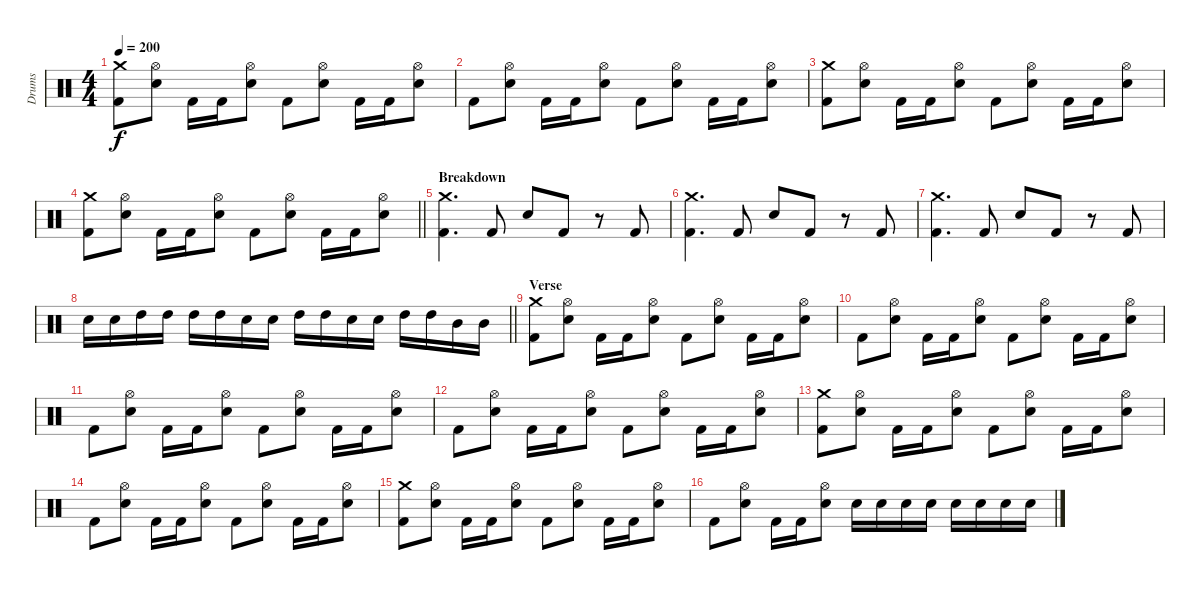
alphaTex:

\track ("Drums" "Drums") {instrument percussion}
\staff {score}
\articulation defaults
\ts (4 4)
\tempo 200
\clef neutral
\ks c
("Crash medium (hit)" "Kick (hit) 2").8{dy f} ("Hi-Hat (open)" "Electric Snare (hit)").8 "Kick (hit) 2".16 "Kick (hit) 2".16 ("Hi-Hat (open)" "Electric Snare (hit)").8 "Kick (hit) 2".8 ("Hi-Hat (open)" "Electric Snare (hit)").8 "Kick (hit) 2".16 "Kick (hit) 2".16 ("Hi-Hat (open)" "Electric Snare (hit)").8 |
"Kick (hit) 2".8 ("Hi-Hat (open)" "Electric Snare (hit)").8 "Kick (hit) 2".16 "Kick (hit) 2".16 ("Hi-Hat (open)" "Electric Snare (hit)").8 "Kick (hit) 2".8 ("Hi-Hat (open)" "Electric Snare (hit)").8 "Kick (hit) 2".16 "Kick (hit) 2".16 ("Hi-Hat (open)" "Electric Snare (hit)").8 |
("Crash medium (hit)" "Kick (hit) 2").8 ("Hi-Hat (open)" "Electric Snare (hit)").8 "Kick (hit) 2".16 "Kick (hit) 2".16 ("Hi-Hat (open)" "Electric Snare (hit)").8 "Kick (hit) 2".8 ("Hi-Hat (open)" "Electric Snare (hit)").8 "Kick (hit) 2".16 "Kick (hit) 2".16 ("Hi-Hat (open)" "Electric Snare (hit)").8 |
\barLineRight lightlight
("Crash medium (hit)" "Kick (hit) 2").8 ("Hi-Hat (open)" "Electric Snare (hit)").8 "Kick (hit) 2".16 "Kick (hit) 2".16 ("Hi-Hat (open)" "Electric Snare (hit)").8 "Kick (hit) 2".8 ("Hi-Hat (open)" "Electric Snare (hit)").8 "Kick (hit) 2".16 "Kick (hit) 2".16 ("Hi-Hat (open)" "Electric Snare (hit)").8 |
\section ("" "Breakdown")
("Crash medium (hit)" "Kick (hit) 2").4{d} "Kick (hit) 2".8 "Electric Snare (hit)".8 "Kick (hit) 2".8 r.8 "Kick (hit) 2".8 |
("Crash medium (hit)" "Kick (hit) 2").4{d} "Kick (hit) 2".8 "Electric Snare (hit)".8 "Kick (hit) 2".8 r.8 "Kick (hit) 2".8 |
("Crash medium (hit)" "Kick (hit) 2").4{d} "Kick (hit) 2".8 "Electric Snare (hit)".8 "Kick (hit) 2".8 r.8 "Kick (hit) 2".8 |
\barLineRight lightlight "Electric Snare (hit)".16 "Electric Snare (hit)".16 "High Tom (hit)".16{balance 0} "High Tom (hit)".16 "High Tom (hit)".16 "High Tom (hit)".16 "Electric Snare (hit)".16{balance 8} "Electric Snare (hit)".16 "High Tom (hit)".16{balance 0} "High Tom (hit)".16 "Electric Snare (hit)".16{balance 8} "Electric Snare (hit)".16 "High Tom (hit)".16{balance 0} "High Tom (hit)".16 "Mid Tom (hit)".16{balance 16} "Mid Tom (hit)".16
|
\section ("" "Verse")
("Crash medium (hit)" "Kick (hit) 2").8{balance 8} ("Hi-Hat (open)" "Electric Snare (hit)").8 "Kick (hit) 2".16 "Kick (hit) 2".16 ("Hi-Hat (open)" "Electric Snare (hit)").8 "Kick (hit) 2".8 ("Hi-Hat (open)" "Electric Snare (hit)").8 "Kick (hit) 2".16 "Kick (hit) 2".16 ("Hi-Hat (open)" "Electric Snare (hit)").8 |
"Kick (hit) 2".8 ("Hi-Hat (open)" "Electric Snare (hit)").8 "Kick (hit) 2".16 "Kick (hit) 2".16 ("Hi-Hat (open)" "Electric Snare (hit)").8 "Kick (hit) 2".8 ("Hi-Hat (open)" "Electric Snare (hit)").8 "Kick (hit) 2".16 "Kick (hit) 2".16 ("Hi-Hat (open)" "Electric Snare (hit)").8 |
"Kick (hit) 2".8 ("Hi-Hat (open)" "Electric Snare (hit)").8 "Kick (hit) 2".16 "Kick (hit) 2".16 ("Hi-Hat (open)" "Electric Snare (hit)").8 "Kick (hit) 2".8 ("Hi-Hat (open)" "Electric Snare (hit)").8 "Kick (hit) 2".16 "Kick (hit) 2".16 ("Hi-Hat (open)" "Electric Snare (hit)").8 |
"Kick (hit) 2".8 ("Hi-Hat (open)" "Electric Snare (hit)").8 "Kick (hit) 2".16 "Kick (hit) 2".16 ("Hi-Hat (open)" "Electric Snare (hit)").8 "Kick (hit) 2".8 ("Hi-Hat (open)" "Electric Snare (hit)").8 "Kick (hit) 2".16 "Kick (hit) 2".16 ("Hi-Hat (open)" "Electric Snare (hit)").8 |
("Crash medium (hit)" "Kick (hit) 2").8 ("Hi-Hat (open)" "Electric Snare (hit)").8 "Kick (hit) 2".16 "Kick (hit) 2".16 ("Hi-Hat (open)" "Electric Snare (hit)").8 "Kick (hit) 2".8 ("Hi-Hat (open)" "Electric Snare (hit)").8 "Kick (hit) 2".16 "Kick (hit) 2".16 ("Hi-Hat (open)" "Electric Snare (hit)").8 |
"Kick (hit) 2".8 ("Hi-Hat (open)" "Electric Snare (hit)").8 "Kick (hit) 2".16 "Kick (hit) 2".16 ("Hi-Hat (open)" "Electric Snare (hit)").8 "Kick (hit) 2".8 ("Hi-Hat (open)" "Electric Snare (hit)").8 "Kick (hit) 2".16 "Kick (hit) 2".16 ("Hi-Hat (open)" "Electric Snare (hit)").8 |
("Crash medium (hit)" "Kick (hit) 2").8 ("Hi-Hat (open)" "Electric Snare (hit)").8 "Kick (hit) 2".16 "Kick (hit) 2".16 ("Hi-Hat (open)" "Electric Snare (hit)").8 "Kick (hit) 2".8 ("Hi-Hat (open)" "Electric Snare (hit)").8 "Kick (hit) 2".16 "Kick (hit) 2".16 ("Hi-Hat (open)" "Electric Snare (hit)").8 |
"Kick (hit) 2".8 ("Hi-Hat (open)" "Electric Snare (hit)").8 "Kick (hit) 2".16 "Kick (hit) 2".16 ("Hi-Hat (open)" "Electric Snare (hit)").8 "Electric Snare (hit)".16 "Electric Snare (hit)".16 "Electric Snare (hit)".16 "Electric Snare (hit)".16 "Electric Snare (hit)".16 "Electric Snare (hit)".16 "Electric Snare (hit)".16 "Electric Snare (hit)".16
